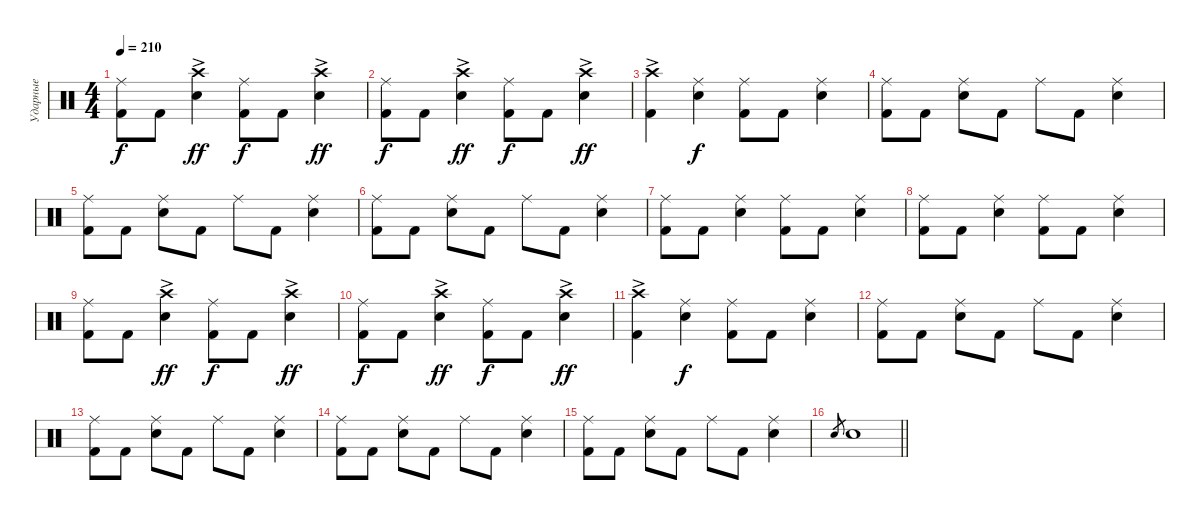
\track ("Ударные" "Ударные") {instrument percussion}
\staff {score}
\articulation defaults
\ts (4 4)
\tempo 210
\clef neutral
\ks c
("Ride (middle)" "Kick (hit) 2").8{dy f} "Kick (hit) 2".8 ("Crash high (hit)"{ac} "Snare (hit) 2").4{dy ff} ("Ride (middle)" "Kick (hit) 2").8{dy f} "Kick (hit) 2".8 ("Crash high (hit)"{ac} "Snare (hit) 2").4{dy ff} |
("Ride (middle)" "Kick (hit) 2").8{dy f} "Kick (hit) 2".8 ("Crash high (hit)"{ac} "Snare (hit) 2").4{dy ff} ("Ride (middle)" "Kick (hit) 2").8{dy f} "Kick (hit) 2".8 ("Crash high (hit)"{ac} "Snare (hit) 2").4{dy ff} |
("Crash high (hit)"{ac} "Kick (hit) 2").4 ("Ride (middle)" "Snare (hit) 2").4{dy f} ("Ride (middle)" "Kick (hit) 2").8 "Kick (hit) 2".8 ("Ride (middle)" "Snare (hit) 2").4 |
("Ride (middle)" "Kick (hit) 2").8 "Kick (hit) 2".8 ("Ride (middle)" "Snare (hit) 2").8 "Kick (hit) 2".8 "Ride (middle)".8 "Kick (hit) 2".8 ("Ride (middle)" "Snare (hit) 2").4 |
("Ride (middle)" "Kick (hit) 2").8 "Kick (hit) 2".8 ("Ride (middle)" "Snare (hit) 2").8 "Kick (hit) 2".8 "Ride (middle)".8 "Kick (hit) 2".8 ("Ride (middle)" "Snare (hit) 2").4 |
("Ride (middle)" "Kick (hit) 2").8 "Kick (hit) 2".8 ("Ride (middle)" "Snare (hit) 2").8 "Kick (hit) 2".8 "Ride (middle)".8 "Kick (hit) 2".8 ("Ride (middle)" "Snare (hit) 2").4 |
("Ride (middle)" "Kick (hit) 2").8 "Kick (hit) 2".8 ("Ride (middle)" "Snare (hit) 2").4 ("Ride (middle)" "Kick (hit) 2").8 "Kick (hit) 2".8 ("Ride (middle)" "Snare (hit) 2").4 |
("Ride (middle)" "Kick (hit) 2").8 "Kick (hit) 2".8 ("Ride (middle)" "Snare (hit) 2").4 ("Ride (middle)" "Kick (hit) 2").8 "Kick (hit) 2".8 ("Ride (middle)" "Snare (hit) 2").4 |
("Ride (middle)" "Kick (hit) 2").8 "Kick (hit) 2".8 ("Crash high (hit)"{ac} "Snare (hit) 2").4{dy ff} ("Ride (middle)" "Kick (hit) 2").8{dy f} "Kick (hit) 2".8 ("Crash high (hit)"{ac} "Snare (hit) 2").4{dy ff} |
("Ride (middle)" "Kick (hit) 2").8{dy f} "Kick (hit) 2".8 ("Crash high (hit)"{ac} "Snare (hit) 2").4{dy ff} ("Ride (middle)" "Kick (hit) 2").8{dy f} "Kick (hit) 2".8 ("Crash high (hit)"{ac} "Snare (hit) 2").4{dy ff} |
("Crash high (hit)"{ac} "Kick (hit) 2").4 ("Ride (middle)" "Snare (hit) 2").4{dy f} ("Ride (middle)" "Kick (hit) 2").8 "Kick (hit) 2".8 ("Ride (middle)" "Snare (hit) 2").4 |
("Ride (middle)" "Kick (hit) 2").8 "Kick (hit) 2".8 ("Ride (middle)" "Snare (hit) 2").8 "Kick (hit) 2".8 "Ride (middle)".8 "Kick (hit) 2".8 ("Ride (middle)" "Snare (hit) 2").4 |
("Ride (middle)" "Kick (hit) 2").8 "Kick (hit) 2".8 ("Ride (middle)" "Snare (hit) 2").8 "Kick (hit) 2".8 "Ride (middle)".8 "Kick (hit) 2".8 ("Ride (middle)" "Snare (hit) 2").4 |
("Ride (middle)" "Kick (hit) 2").8 "Kick (hit) 2".8 ("Ride (middle)" "Snare (hit) 2").8 "Kick (hit) 2".8 "Ride (middle)".8 "Kick (hit) 2".8 ("Ride (middle)" "Snare (hit) 2").4 |
("Ride (middle)" "Kick (hit) 2").8 "Kick (hit) 2".8 ("Ride (middle)" "Snare (hit) 2").8 "Kick (hit) 2".8 "Ride (middle)".8 "Kick (hit) 2".8 ("Ride (middle)" "Snare (hit) 2").4 |
\barLineRight lightlight "Snare (hit) 2".8{gr} "Snare (hit) 2".1
